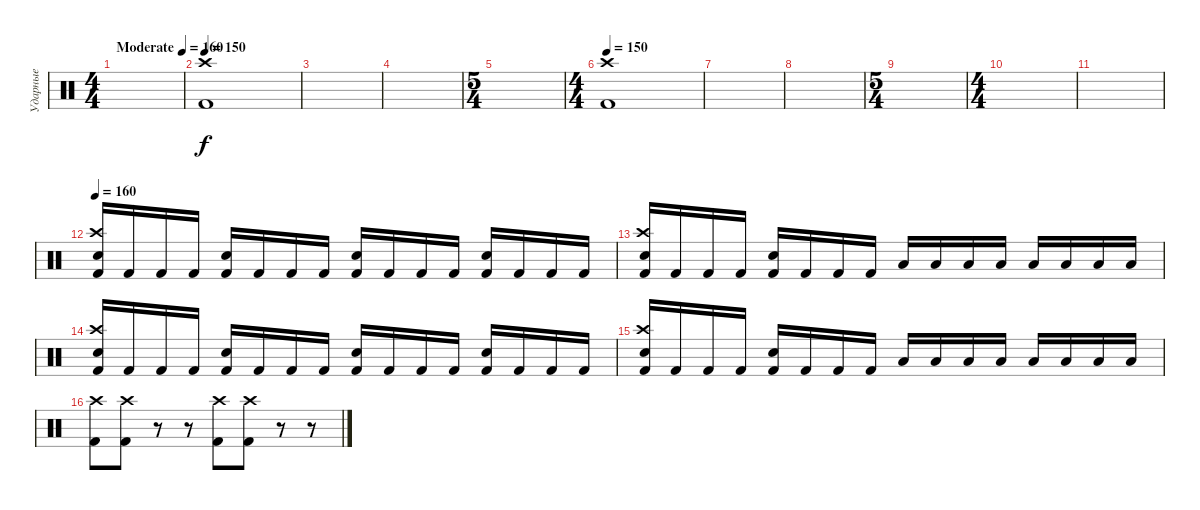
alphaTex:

\track ("Ударные" "Ударные") {instrument percussion}
\staff {score}
\articulation defaults
\ts (4 4)
\tempo (160 "Moderate")
\clef neutral
\ks c
|
\tempo 150
("Kick (hit) 2" "Crash high (hit)").1 |
|
|
\ts (5 4)
|
\ts (4 4)
\tempo 150
("Kick (hit) 2" "Crash high (hit)").1 |
|
|
\ts (5 4)
|
\ts (4 4)
|
|
\tempo 160
("Crash high (hit)" "Electric Snare (hit)" "Kick (hit) 2").16 "Kick (hit) 2".16 "Kick (hit) 2".16 "Kick (hit) 2".16 ("Electric Snare (hit)" "Kick (hit) 2").16 "Kick (hit) 2".16 "Kick (hit) 2".16 "Kick (hit) 2".16 ("Kick (hit) 2" "Electric Snare (hit)").16 "Kick (hit) 2".16 "Kick (hit) 2".16 "Kick (hit) 2".16 ("Kick (hit) 2" "Electric Snare (hit)").16 "Kick (hit) 2".16 "Kick (hit) 2".16 "Kick (hit) 2".16 |
("Crash high (hit)" "Electric Snare (hit)" "Kick (hit) 2").16 "Kick (hit) 2".16 "Kick (hit) 2".16 "Kick (hit) 2".16 ("Electric Snare (hit)" "Kick (hit) 2").16 "Kick (hit) 2".16 "Kick (hit) 2".16 "Kick (hit) 2".16 "Low Tom (hit)".16 "Low Tom (hit)".16 "Low Tom (hit)".16 "Low Tom (hit)".16 "Low Floor Tom (hit)".16 "Low Floor Tom (hit)".16 "Low Floor Tom (hit)".16 "Low Floor Tom (hit)".16 |
("Crash high (hit)" "Electric Snare (hit)" "Kick (hit) 2").16 "Kick (hit) 2".16 "Kick (hit) 2".16 "Kick (hit) 2".16 ("Electric Snare (hit)" "Kick (hit) 2").16 "Kick (hit) 2".16 "Kick (hit) 2".16 "Kick (hit) 2".16 ("Kick (hit) 2" "Electric Snare (hit)").16 "Kick (hit) 2".16 "Kick (hit) 2".16 "Kick (hit) 2".16 ("Kick (hit) 2" "Electric Snare (hit)").16 "Kick (hit) 2".16 "Kick (hit) 2".16 "Kick (hit) 2".16 |
("Crash high (hit)" "Electric Snare (hit)" "Kick (hit) 2").16 "Kick (hit) 2".16 "Kick (hit) 2".16 "Kick (hit) 2".16 ("Electric Snare (hit)" "Kick (hit) 2").16 "Kick (hit) 2".16 "Kick (hit) 2".16 "Kick (hit) 2".16 "Low Tom (hit)".16 "Low Tom (hit)".16 "Low Tom (hit)".16 "Low Tom (hit)".16 "Low Floor Tom (hit)".16 "Low Floor Tom (hit)".16 "Low Floor Tom (hit)".16 "Low Floor Tom (hit)".16 |
("Crash high (hit)" "Kick (hit) 2").8 ("Crash high (hit)" "Kick (hit) 2").8 r.8 r.8 ("Kick (hit) 2" "Crash high (hit)").8 ("Kick (hit) 2" "Crash high (hit)").8 r.8 r.8
